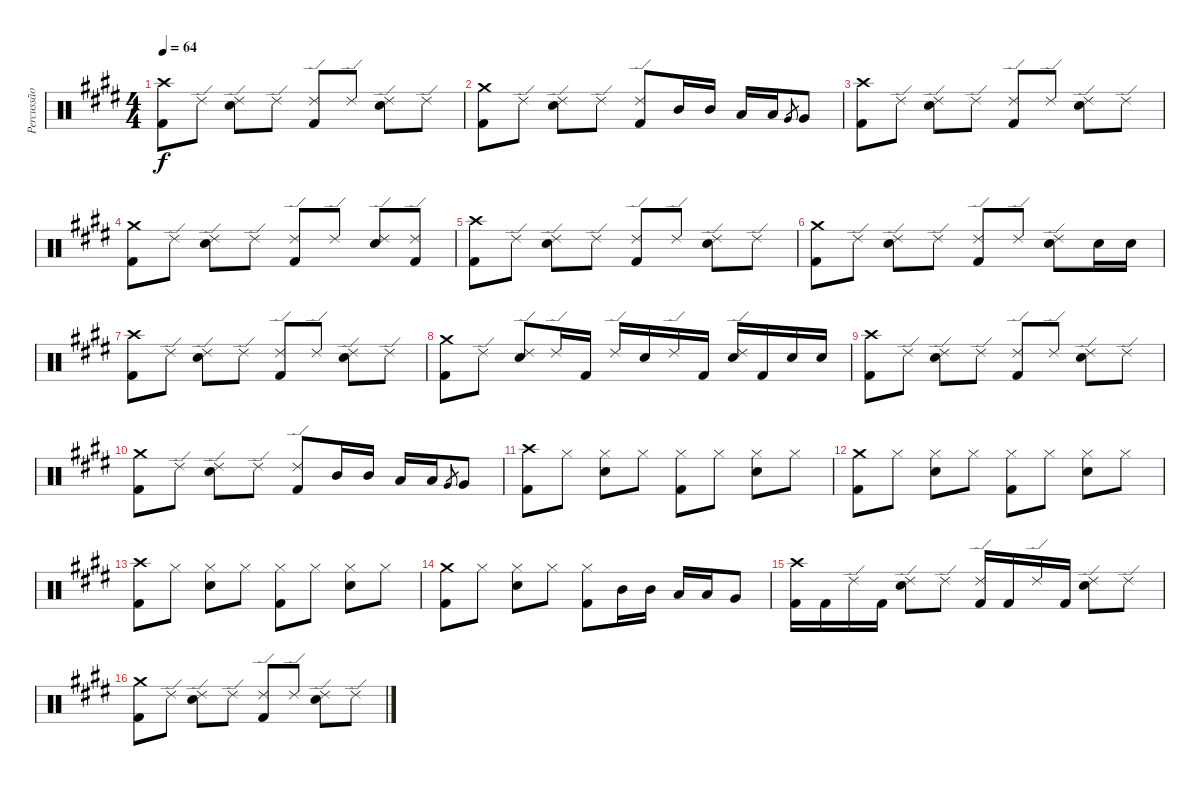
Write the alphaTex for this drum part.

\track ("Percussão" "Percussão") {instrument percussion}
\staff {score}
\articulation defaults
\ts (4 4)
\tempo 64
\clef neutral
\ks e
("Crash high (hit)" "Kick (hit) 2").8{dy f} "Ride (edge) 2".8 ("Ride (edge) 2" "Electric Snare (hit)").8 "Ride (edge) 2".8 ("Ride (edge) 2" "Kick (hit) 2").8 "Ride (edge) 2".8 ("Ride (edge) 2" "Electric Snare (hit)").8 "Ride (edge) 2".8 |
("Crash medium (hit)" "Kick (hit) 2").8 "Ride (edge) 2".8 ("Ride (edge) 2" "Electric Snare (hit)").8 "Ride (edge) 2".8 ("Ride (edge) 2" "Kick (hit) 2").8 "Mid Tom (hit)".16 "Mid Tom (hit)".16 "Low Tom (hit)".16 "Low Tom (hit)".16 "Very Low Tom (hit)".8{gr} "Very Low Tom (hit)".8 |
("Crash high (hit)" "Kick (hit) 2").8 "Ride (edge) 2".8 ("Ride (edge) 2" "Electric Snare (hit)").8 "Ride (edge) 2".8 ("Ride (edge) 2" "Kick (hit) 2").8 "Ride (edge) 2".8 ("Ride (edge) 2" "Electric Snare (hit)").8 "Ride (edge) 2".8 |
("Crash medium (hit)" "Kick (hit) 2").8 "Ride (edge) 2".8 ("Ride (edge) 2" "Electric Snare (hit)").8 "Ride (edge) 2".8 ("Ride (edge) 2" "Kick (hit) 2").8 "Ride (edge) 2".8 ("Ride (edge) 2" "Electric Snare (hit)").8 ("Ride (edge) 2" "Kick (hit) 2").8 |
("Crash high (hit)" "Kick (hit) 2").8 "Ride (edge) 2".8 ("Ride (edge) 2" "Electric Snare (hit)").8 "Ride (edge) 2".8 ("Ride (edge) 2" "Kick (hit) 2").8 "Ride (edge) 2".8 ("Ride (edge) 2" "Electric Snare (hit)").8 "Ride (edge) 2".8 |
("Crash medium (hit)" "Kick (hit) 2").8 "Ride (edge) 2".8 ("Ride (edge) 2" "Electric Snare (hit)").8 "Ride (edge) 2".8 ("Ride (edge) 2" "Kick (hit) 2").8 "Ride (edge) 2".8 ("Ride (edge) 2" "Electric Snare (hit)").8 "Electric Snare (hit)".16 "Electric Snare (hit)".16 |
("Crash high (hit)" "Kick (hit) 2").8 "Ride (edge) 2".8 ("Ride (edge) 2" "Electric Snare (hit)").8 "Ride (edge) 2".8 ("Ride (edge) 2" "Kick (hit) 2").8 "Ride (edge) 2".8 ("Ride (edge) 2" "Electric Snare (hit)").8 "Ride (edge) 2".8 |
("Crash medium (hit)" "Kick (hit) 2").8 "Ride (edge) 2".8 ("Ride (edge) 2" "Electric Snare (hit)").8 "Ride (edge) 2".16 "Kick (hit) 2".16 "Ride (edge) 2".16 "Electric Snare (hit)".16 "Ride (edge) 2".16 "Kick (hit) 2".16 ("Ride (edge) 2" "Electric Snare (hit)").16 "Kick (hit) 2".16 "Electric Snare (hit)".16 "Electric Snare (hit)".16 |
("Crash high (hit)" "Kick (hit) 2").8 "Ride (edge) 2".8 ("Ride (edge) 2" "Electric Snare (hit)").8 "Ride (edge) 2".8 ("Ride (edge) 2" "Kick (hit) 2").8 "Ride (edge) 2".8 ("Ride (edge) 2" "Electric Snare (hit)").8 "Ride (edge) 2".8 |
("Crash medium (hit)" "Kick (hit) 2").8 "Ride (edge) 2".8 ("Ride (edge) 2" "Electric Snare (hit)").8 "Ride (edge) 2".8 ("Ride (edge) 2" "Kick (hit) 2").8 "Mid Tom (hit)".16 "Mid Tom (hit)".16 "Low Tom (hit)".16 "Low Tom (hit)".16 "Very Low Tom (hit)".8{gr} "Very Low Tom (hit)".8 |
("Crash high (hit)" "Kick (hit) 2").8 "Hi-Hat (closed)".8 ("Hi-Hat (closed)" "Electric Snare (hit)").8 "Hi-Hat (closed)".8 ("Hi-Hat (closed)" "Kick (hit) 2").8 "Hi-Hat (closed)".8 ("Hi-Hat (closed)" "Electric Snare (hit)").8 "Hi-Hat (closed)".8 |
("Crash medium (hit)" "Kick (hit) 2").8 "Hi-Hat (closed)".8 ("Hi-Hat (closed)" "Electric Snare (hit)").8 "Hi-Hat (closed)".8 ("Hi-Hat (closed)" "Kick (hit) 2").8 "Hi-Hat (closed)".8 ("Hi-Hat (closed)" "Electric Snare (hit)").8 "Hi-Hat (closed)".8 |
("Crash high (hit)" "Kick (hit) 2").8 "Hi-Hat (closed)".8 ("Hi-Hat (closed)" "Electric Snare (hit)").8 "Hi-Hat (closed)".8 ("Hi-Hat (closed)" "Kick (hit) 2").8 "Hi-Hat (closed)".8 ("Hi-Hat (closed)" "Electric Snare (hit)").8 "Hi-Hat (closed)".8 |
("Crash medium (hit)" "Kick (hit) 2").8 "Hi-Hat (closed)".8 ("Hi-Hat (closed)" "Electric Snare (hit)").8 "Hi-Hat (closed)".8 ("Hi-Hat (closed)" "Kick (hit) 2").8 "Mid Tom (hit)".16 "Mid Tom (hit)".16 "Low Tom (hit)".16 "Low Tom (hit)".16 "Very Low Tom (hit)".8 |
("Crash high (hit)" "Kick (hit) 2").16 "Kick (hit) 2".16 "Ride (edge) 2".16 "Kick (hit) 2".16 ("Ride (edge) 2" "Electric Snare (hit)").8 "Ride (edge) 2".8 ("Ride (edge) 2" "Kick (hit) 2").16 "Kick (hit) 2".16 "Ride (edge) 2".16 "Kick (hit) 2".16 ("Ride (edge) 2" "Electric Snare (hit)").8 "Ride (edge) 2".8 |
("Crash medium (hit)" "Kick (hit) 2").8 "Ride (edge) 2".8 ("Ride (edge) 2" "Electric Snare (hit)").8 "Ride (edge) 2".8 ("Ride (edge) 2" "Kick (hit) 2").8 "Ride (edge) 2".8 ("Ride (edge) 2" "Electric Snare (hit)").8 "Ride (edge) 2".8
